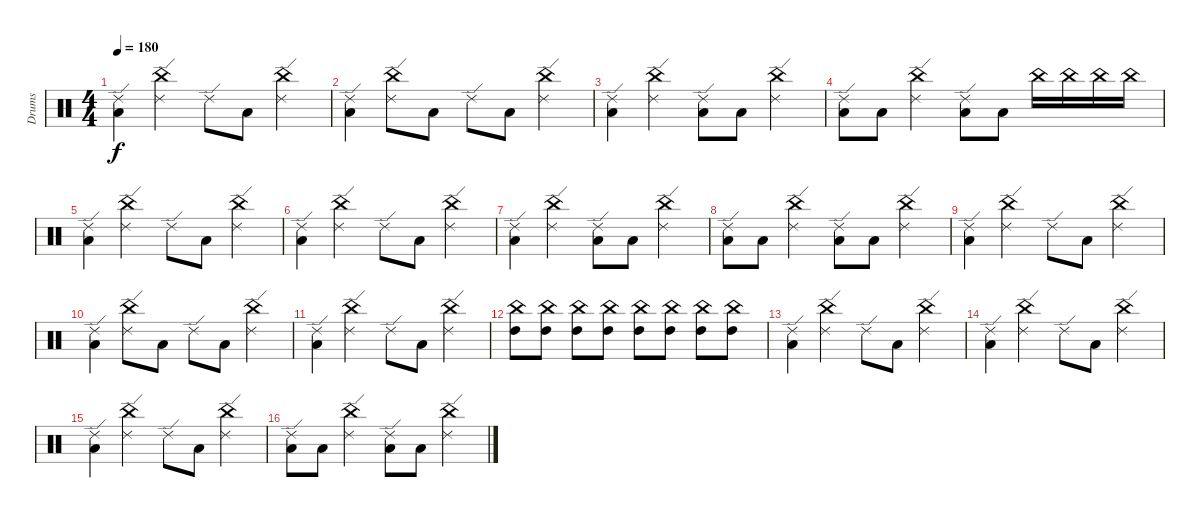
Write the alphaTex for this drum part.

\track ("Drums" "Drums") {instrument percussion}
\staff {score}
\articulation defaults
\ts (4 4)
\tempo 180
\clef neutral
\ks c
("Low Tom (hit)" "Ride (edge) 2").4{dy f} ("China (hit)" "Ride (edge) 2").4 "Ride (edge) 2".8 "Low Tom (hit)".8 ("China (hit)" "Ride (edge) 2").4 |
("Low Tom (hit)" "Ride (edge) 2").4 ("China (hit)" "Ride (edge) 2").8 "Low Tom (hit)".8 "Ride (edge) 2".8 "Low Tom (hit)".8 ("China (hit)" "Ride (edge) 2").4 |
("Low Tom (hit)" "Ride (edge) 2").4 ("China (hit)" "Ride (edge) 2").4 ("Low Tom (hit)" "Ride (edge) 2").8 "Low Tom (hit)".8 ("China (hit)" "Ride (edge) 2").4 |
("Low Tom (hit)" "Ride (edge) 2").8 "Low Tom (hit)".8 ("China (hit)" "Ride (edge) 2").4 ("Low Tom (hit)" "Ride (edge) 2").8 "Low Tom (hit)".8 "China (hit)".16 "China (hit)".16 "China (hit)".16 "China (hit)".16 |
("Low Tom (hit)" "Ride (edge) 2").4 ("China (hit)" "Ride (edge) 2").4 "Ride (edge) 2".8 "Low Tom (hit)".8 ("China (hit)" "Ride (edge) 2").4 |
("Ride (edge) 2" "Low Tom (hit)").4 ("Ride (edge) 2" "China (hit)").4 "Ride (edge) 2".8 "Low Tom (hit)".8 ("Ride (edge) 2" "China (hit)").4 |
("Low Tom (hit)" "Ride (edge) 2").4 ("Ride (edge) 2" "China (hit)").4 ("Ride (edge) 2" "Low Tom (hit)").8 "Low Tom (hit)".8 ("Ride (edge) 2" "China (hit)").4 |
("Low Tom (hit)" "Ride (edge) 2").8 "Low Tom (hit)".8 ("China (hit)" "Ride (edge) 2").4 ("Low Tom (hit)" "Ride (edge) 2").8 "Low Tom (hit)".8 ("China (hit)" "Ride (edge) 2").4 |
("Low Tom (hit)" "Ride (edge) 2").4 ("China (hit)" "Ride (edge) 2").4 "Ride (edge) 2".8 "Low Tom (hit)".8 ("China (hit)" "Ride (edge) 2").4 |
("Low Tom (hit)" "Ride (edge) 2").4 ("China (hit)" "Ride (edge) 2").8 "Low Tom (hit)".8 "Ride (edge) 2".8 "Low Tom (hit)".8 ("China (hit)" "Ride (edge) 2").4 |
("Low Tom (hit)" "Ride (edge) 2").4 ("China (hit)" "Ride (edge) 2").4 "Ride (edge) 2".8 "Low Tom (hit)".8 ("China (hit)" "Ride (edge) 2").4 |
("China (hit)" "High Tom (hit)").8 ("High Tom (hit)" "China (hit)").8 ("High Tom (hit)" "China (hit)").8 ("China (hit)" "High Tom (hit)").8 ("High Tom (hit)" "China (hit)").8 ("China (hit)" "High Tom (hit)").8 ("High Tom (hit)" "China (hit)").8 ("High Tom (hit)" "China (hit)").8 |
("Low Tom (hit)" "Ride (edge) 2").4 ("China (hit)" "Ride (edge) 2").4 "Ride (edge) 2".8 "Low Tom (hit)".8 ("China (hit)" "Ride (edge) 2").4 |
("Low Tom (hit)" "Ride (edge) 2").4 ("China (hit)" "Ride (edge) 2").4 "Ride (edge) 2".8 "Low Tom (hit)".8 ("China (hit)" "Ride (edge) 2").4 |
("Low Tom (hit)" "Ride (edge) 2").4 ("China (hit)" "Ride (edge) 2").4 "Ride (edge) 2".8 "Low Tom (hit)".8 ("China (hit)" "Ride (edge) 2").4 |
("Low Tom (hit)" "Ride (edge) 2").8 "Low Tom (hit)".8 ("China (hit)" "Ride (edge) 2").4 ("Low Tom (hit)" "Ride (edge) 2").8 "Low Tom (hit)".8 ("China (hit)" "Ride (edge) 2").4
